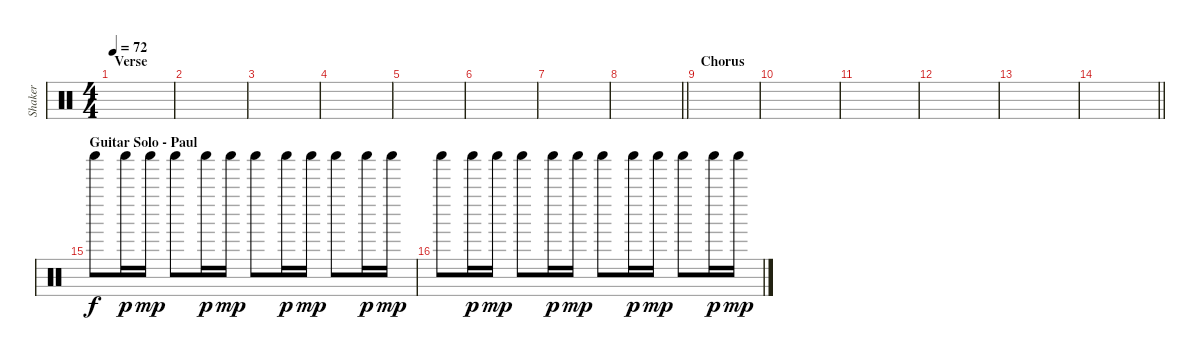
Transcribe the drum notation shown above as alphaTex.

\track ("Shaker" "Shaker") {instrument percussion}
\staff {score}
\articulation defaults
\ts (4 4)
\section ("" "Verse")
\tempo 72
\clef neutral
\ks c
|
|
|
|
|
|
|
\barLineRight lightlight
|
\section ("" "Chorus")
|
|
|
|
|
\barLineRight lightlight
|
\section ("" "Guitar Solo - Paul")
"Shaker (hit)".8 "Shaker (hit)".16{dy p} "Shaker (hit)".16{dy mp} "Shaker (hit)".8 "Shaker (hit)".16{dy p} "Shaker (hit)".16{dy mp} "Shaker (hit)".8 "Shaker (hit)".16{dy p} "Shaker (hit)".16{dy mp} "Shaker (hit)".8 "Shaker (hit)".16{dy p} "Shaker (hit)".16{dy mp} |
"Shaker (hit)".8 "Shaker (hit)".16{dy p} "Shaker (hit)".16{dy mp} "Shaker (hit)".8 "Shaker (hit)".16{dy p} "Shaker (hit)".16{dy mp} "Shaker (hit)".8 "Shaker (hit)".16{dy p} "Shaker (hit)".16{dy mp} "Shaker (hit)".8 "Shaker (hit)".16{dy p} "Shaker (hit)".16{dy mp}
